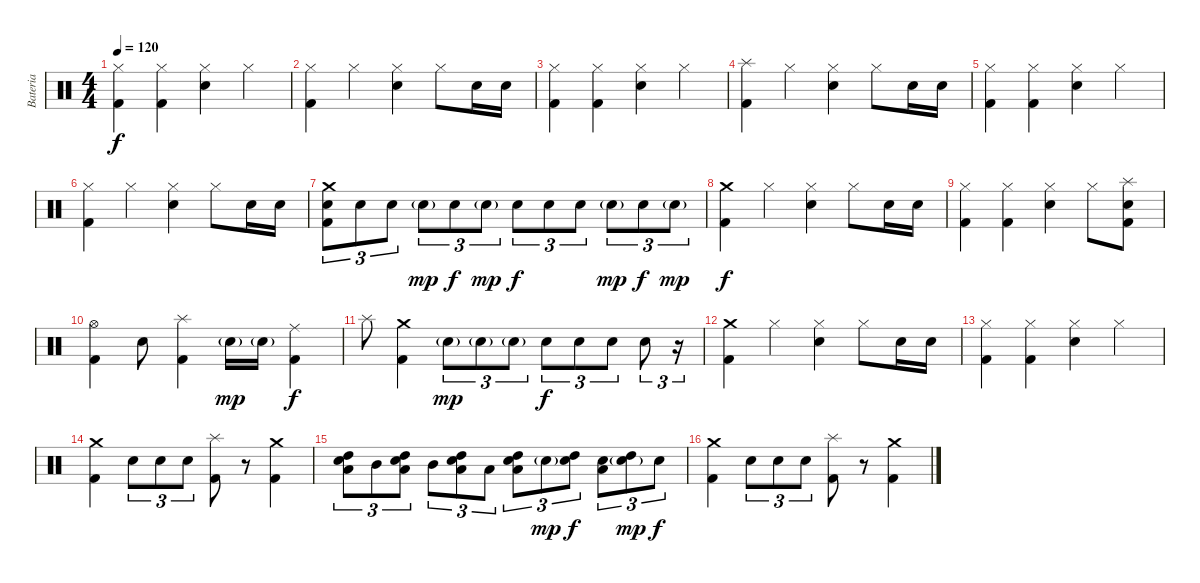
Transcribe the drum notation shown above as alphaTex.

\track ("Bateria" "Bateria") {instrument percussion}
\staff
\articulation defaults
\ts (4 4)
\tempo 120
\clef neutral
\ks c
("Hi-Hat (closed)" "Kick (hit) 2").4{dy f} ("Hi-Hat (closed)" "Kick (hit) 2").4 ("Hi-Hat (closed)" "Electric Snare (hit)").4 "Hi-Hat (closed)".4 |
("Hi-Hat (closed)" "Kick (hit) 2").4 "Hi-Hat (closed)".4 ("Hi-Hat (closed)" "Electric Snare (hit)").4 "Hi-Hat (closed)".8 "Electric Snare (hit)".16 "Electric Snare (hit)".16 |
("Hi-Hat (closed)" "Kick (hit) 2").4 ("Hi-Hat (closed)" "Kick (hit) 2").4 ("Hi-Hat (closed)" "Electric Snare (hit)").4 "Hi-Hat (closed)".4 |
("Splash (hit)" "Kick (hit) 2").4 "Hi-Hat (closed)".4 ("Hi-Hat (closed)" "Electric Snare (hit)").4 "Hi-Hat (closed)".8 "Electric Snare (hit)".16 "Electric Snare (hit)".16 |
("Hi-Hat (closed)" "Kick (hit) 2").4 ("Hi-Hat (closed)" "Kick (hit) 2").4 ("Hi-Hat (closed)" "Electric Snare (hit)").4 "Hi-Hat (closed)".4 |
("Hi-Hat (closed)" "Kick (hit) 2").4 "Hi-Hat (closed)".4 ("Hi-Hat (closed)" "Electric Snare (hit)").4 "Hi-Hat (closed)".8 "Electric Snare (hit)".16 "Electric Snare (hit)".16 |
("Crash medium (hit)" "Electric Snare (hit)" "Kick (hit) 2").8{tu (3 2)} "Electric Snare (hit)".8{tu (3 2)} "Electric Snare (hit)".8{tu (3 2)} "Electric Snare (hit)"{g}.8{tu (3 2) dy mp} "Electric Snare (hit)".8{tu (3 2) dy f} "Electric Snare (hit)"{g}.8{tu (3 2) dy mp} "Electric Snare (hit)".8{tu (3 2) dy f} "Electric Snare (hit)".8{tu (3 2)} "Electric Snare (hit)".8{tu (3 2)} "Electric Snare (hit)"{g}.8{tu (3 2) dy mp} "Electric Snare (hit)".8{tu (3 2) dy f} "Electric Snare (hit)"{g}.8{tu (3 2) dy mp} |
("Crash medium (hit)" "Kick (hit) 2").4{dy f} "Hi-Hat (closed)".4 ("Hi-Hat (closed)" "Electric Snare (hit)").4 "Hi-Hat (closed)".8 "Electric Snare (hit)".16 "Electric Snare (hit)".16 |
("Hi-Hat (closed)" "Kick (hit) 2").4 ("Hi-Hat (closed)" "Kick (hit) 2").4 ("Hi-Hat (closed)" "Electric Snare (hit)").4 "Hi-Hat (closed)".8 ("Splash (hit)" "Electric Snare (hit)" "Kick (hit) 2").8 |
("Hi-Hat (open)" "Kick (hit) 2").4 "Electric Snare (hit)".8 ("Splash (hit)" "Kick (hit) 2").4 "Electric Snare (hit)"{g}.16{dy mp} "Electric Snare (hit)"{g}.16 ("Ride (middle)" "Kick (hit) 2").4{dy f} |
"Splash (hit)".8 ("Crash medium (hit)" "Kick (hit) 2").4 "Electric Snare (hit)"{g}.8{tu (3 2) dy mp} "Electric Snare (hit)"{g}.8{tu (3 2)} "Electric Snare (hit)"{g}.8{tu (3 2)} "Electric Snare (hit)".8{tu (3 2) dy f} "Electric Snare (hit)".8{tu (3 2)} "Electric Snare (hit)".8{tu (3 2)} "Electric Snare (hit)".8{tu (3 2)} r.16{tu (3 2)} |
("Crash medium (hit)" "Kick (hit) 2").4 "Hi-Hat (closed)".4 ("Hi-Hat (closed)" "Electric Snare (hit)").4 "Hi-Hat (closed)".8 "Electric Snare (hit)".16 "Electric Snare (hit)".16 |
("Hi-Hat (closed)" "Kick (hit) 2").4 ("Hi-Hat (closed)" "Kick (hit) 2").4 ("Hi-Hat (closed)" "Electric Snare (hit)").4 "Hi-Hat (closed)".4 |
("Crash medium (hit)" "Kick (hit) 2").4 "Electric Snare (hit)".8{tu (3 2)} "Electric Snare (hit)".8{tu (3 2)} "Electric Snare (hit)".8{tu (3 2)} ("Splash (hit)" "Kick (hit) 2").8 r.8 ("Crash medium (hit)" "Kick (hit) 2").4 |
("High Tom (hit)" "Low Tom (hit)" "Electric Snare (hit)").8{tu (3 2)} "Mid Tom (hit)".8{tu (3 2)} ("High Tom (hit)" "Low Tom (hit)" "Electric Snare (hit)").8{tu (3 2)} "Mid Tom (hit)".8{tu (3 2)} ("High Tom (hit)" "Low Tom (hit)" "Electric Snare (hit)").8{tu (3 2)} "Low Tom (hit)".8{tu (3 2)} ("High Tom (hit)" "Electric Snare (hit)" "Low Tom (hit)").8{tu (3 2)} "Electric Snare (hit)"{g}.8{tu (3 2) dy mp} ("High Tom (hit)" "Electric Snare (hit)").8{tu (3 2) dy f} ("Electric Snare (hit)" "Low Tom (hit)").8{tu (3 2)} ("High Tom (hit)" "Electric Snare (hit)"{g}).8{tu (3 2) dy mp} "Electric Snare (hit)".8{tu (3 2) dy f} |
("Crash medium (hit)" "Kick (hit) 2").4 "Electric Snare (hit)".8{tu (3 2)} "Electric Snare (hit)".8{tu (3 2)} "Electric Snare (hit)".8{tu (3 2)} ("Splash (hit)" "Kick (hit) 2").8 r.8 ("Crash medium (hit)" "Kick (hit) 2").4
